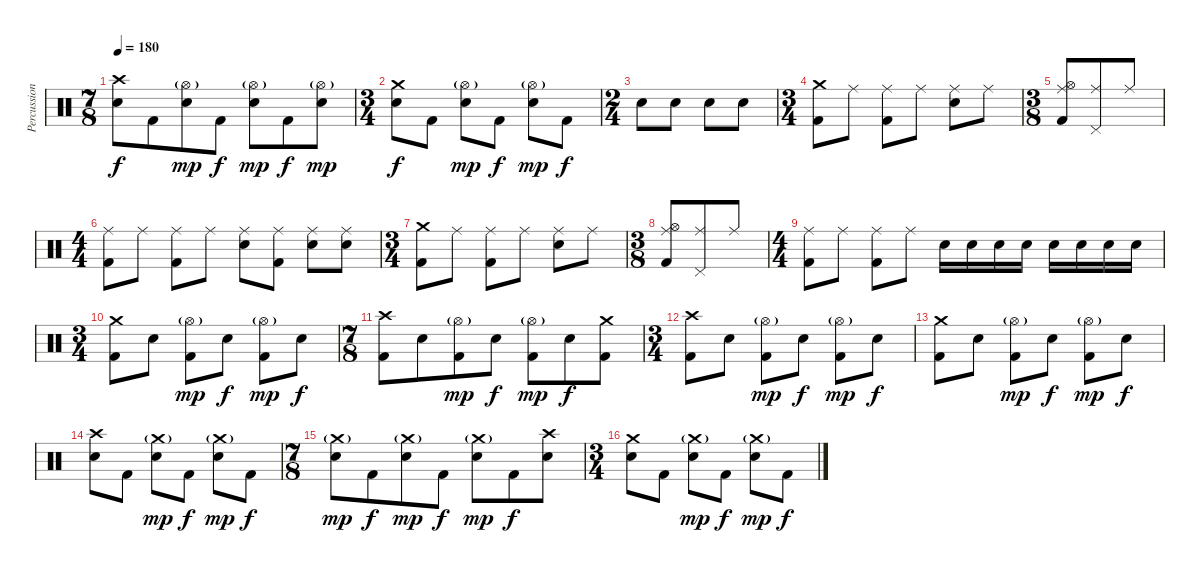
\track ("Percussion" "Percussion") {instrument percussion}
\staff {score}
\articulation defaults
\ts (7 8)
\tempo 180
\clef neutral
\ks c
("Crash high (hit)" "Electric Snare (hit)").8{dy f} "Kick (hit) 2".8 ("Hi-Hat (open)"{g} "Electric Snare (hit)").8{dy mp} "Kick (hit) 2".8{dy f} ("Hi-Hat (open)"{g} "Electric Snare (hit)").8{dy mp} "Kick (hit) 2".8{dy f} ("Hi-Hat (open)"{g} "Electric Snare (hit)").8{dy mp} |
\ts (3 4)
("Crash medium (hit)" "Electric Snare (hit)").8{dy f} "Kick (hit) 2".8 ("Hi-Hat (open)"{g} "Electric Snare (hit)").8{dy mp} "Kick (hit) 2".8{dy f} ("Hi-Hat (open)"{g} "Electric Snare (hit)").8{dy mp} "Kick (hit) 2".8{dy f} |
\ts (2 4)
"Electric Snare (hit)".8 "Electric Snare (hit)".8 "Electric Snare (hit)".8 "Electric Snare (hit)".8 |
\ts (3 4)
("Crash medium (hit)" "Kick (hit) 2").8 "Ride (middle)".8 ("Ride (middle)" "Kick (hit) 2").8 "Ride (middle)".8 ("Ride (middle)" "Electric Snare (hit)").8 "Ride (middle)".8 |
\ts (3 8)
("Ride (middle)" "Hi-Hat (open)" "Kick (hit) 2").8 ("Ride (middle)" "Pedal Hi-Hat (hit)").8 "Ride (middle)".8 |
\ts (4 4)
("Ride (middle)" "Kick (hit) 2").8 "Ride (middle)".8 ("Ride (middle)" "Kick (hit) 2").8 "Ride (middle)".8 ("Ride (middle)" "Electric Snare (hit)").8 ("Ride (middle)" "Kick (hit) 2").8 ("Ride (middle)" "Electric Snare (hit)").8 ("Ride (middle)" "Electric Snare (hit)").8 |
\ts (3 4)
("Crash medium (hit)" "Kick (hit) 2").8 "Ride (middle)".8 ("Ride (middle)" "Kick (hit) 2").8 "Ride (middle)".8 ("Ride (middle)" "Electric Snare (hit)").8 "Ride (middle)".8 |
\ts (3 8)
("Ride (middle)" "Hi-Hat (open)" "Kick (hit) 2").8 ("Ride (middle)" "Pedal Hi-Hat (hit)").8 "Ride (middle)".8 |
\ts (4 4)
("Ride (middle)" "Kick (hit) 2").8 "Ride (middle)".8 ("Ride (middle)" "Kick (hit) 2").8 "Ride (middle)".8 "Electric Snare (hit)".16 "Electric Snare (hit)".16 "Electric Snare (hit)".16 "Electric Snare (hit)".16 "Electric Snare (hit)".16 "Electric Snare (hit)".16 "Electric Snare (hit)".16 "Electric Snare (hit)".16 |
\ts (3 4)
("Crash medium (hit)" "Kick (hit) 2").8 "Electric Snare (hit)".8 ("Hi-Hat (open)"{g} "Kick (hit) 2").8{dy mp} "Electric Snare (hit)".8{dy f} ("Hi-Hat (open)"{g} "Kick (hit) 2").8{dy mp} "Electric Snare (hit)".8{dy f} |
\ts (7 8)
("Crash high (hit)" "Kick (hit) 2").8 "Electric Snare (hit)".8 ("Hi-Hat (open)"{g} "Kick (hit) 2").8{dy mp} "Electric Snare (hit)".8{dy f} ("Hi-Hat (open)"{g} "Kick (hit) 2").8{dy mp} "Electric Snare (hit)".8{dy f} ("Crash medium (hit)" "Kick (hit) 2").8 |
\ts (3 4)
("Crash high (hit)" "Kick (hit) 2").8 "Electric Snare (hit)".8 ("Hi-Hat (open)"{g} "Kick (hit) 2").8{dy mp} "Electric Snare (hit)".8{dy f} ("Hi-Hat (open)"{g} "Kick (hit) 2").8{dy mp} "Electric Snare (hit)".8{dy f} |
("Crash medium (hit)" "Kick (hit) 2").8 "Electric Snare (hit)".8 ("Hi-Hat (open)"{g} "Kick (hit) 2").8{dy mp} "Electric Snare (hit)".8{dy f} ("Hi-Hat (open)"{g} "Kick (hit) 2").8{dy mp} "Electric Snare (hit)".8{dy f} |
("Crash high (hit)" "Electric Snare (hit)").8 "Kick (hit) 2".8 ("Crash medium (hit)"{g} "Electric Snare (hit)").8{dy mp} "Kick (hit) 2".8{dy f} ("Crash medium (hit)"{g} "Electric Snare (hit)").8{dy mp} "Kick (hit) 2".8{dy f} |
\ts (7 8)
("Crash medium (hit)"{g} "Electric Snare (hit)").8{dy mp} "Kick (hit) 2".8{dy f} ("Crash medium (hit)"{g} "Electric Snare (hit)").8{dy mp} "Kick (hit) 2".8{dy f} ("Crash medium (hit)"{g} "Electric Snare (hit)").8{dy mp} "Kick (hit) 2".8{dy f} ("Crash high (hit)" "Electric Snare (hit)").8 |
\ts (3 4)
("Crash medium (hit)" "Electric Snare (hit)").8 "Kick (hit) 2".8 ("Crash medium (hit)"{g} "Electric Snare (hit)").8{dy mp} "Kick (hit) 2".8{dy f} ("Crash medium (hit)"{g} "Electric Snare (hit)").8{dy mp} "Kick (hit) 2".8{dy f}
